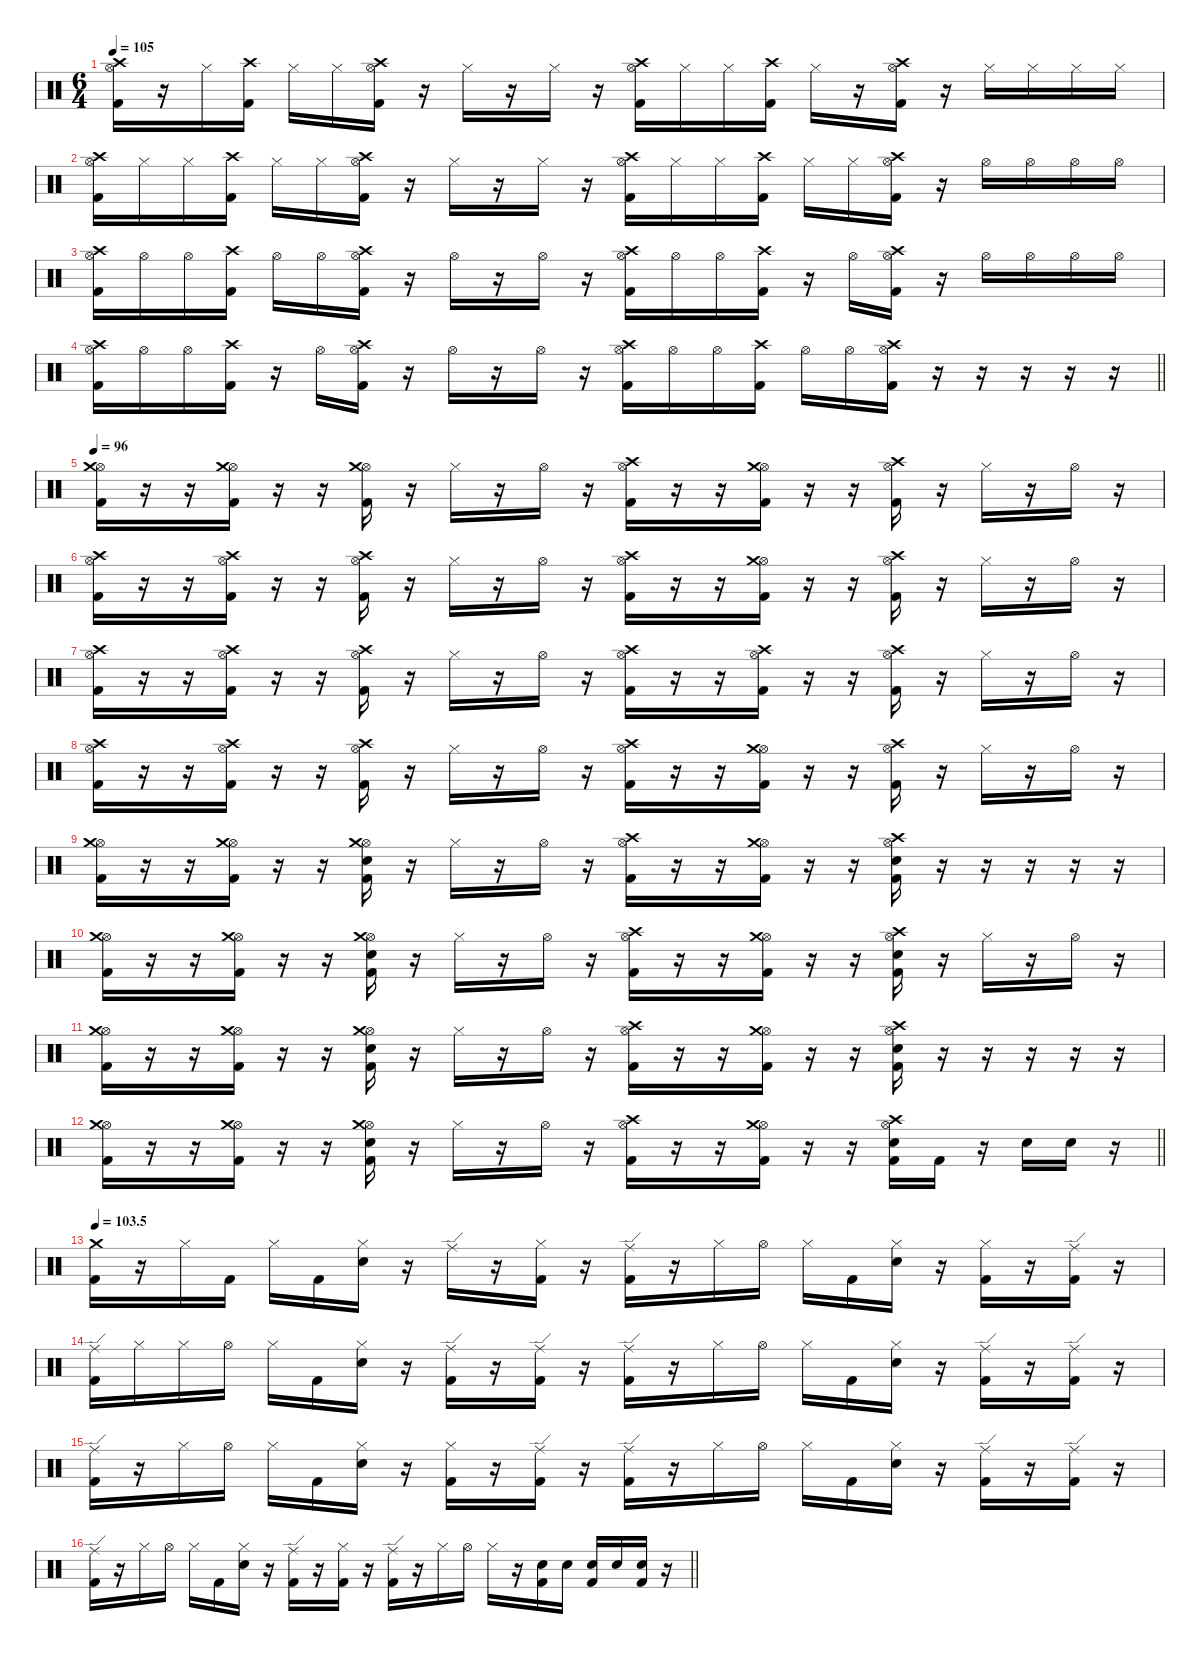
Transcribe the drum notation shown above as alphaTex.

\defaultSystemsLayout 4
\hideDynamics
\bracketExtendMode nobrackets
\singleTrackTrackNamePolicy hidden
\multiTrackTrackNamePolicy hidden
\firstSystemTrackNameMode fullname
\firstSystemTrackNameOrientation horizontal
\otherSystemsTrackNameOrientation horizontal
\track ("Gene Hoglan" "drm.") {instrument percussion}
\staff {score}
\articulation defaults
\ts (6 4)
\tempo 105
\clef neutral
\ks c
("Hi-Hat (open)" "Crash high (hit)" "Kick (hit) 2").16{dy f beam Down} r.16{beam Down} "Hi-Hat (closed)".16{beam Down} ("Crash high (hit)" "Kick (hit) 2").16{beam Down} "Hi-Hat (closed)".16{beam Down} "Hi-Hat (closed)".16{beam Down} ("Hi-Hat (open)" "Crash high (hit)" "Kick (hit) 2").16{beam Down} r.16{beam Down} "Hi-Hat (closed)".16{beam Down} r.16{beam Down} "Hi-Hat (closed)".16{beam Down} r.16{beam Down} ("Hi-Hat (open)" "Crash high (hit)" "Kick (hit) 2").16{beam Down} "Hi-Hat (closed)".16{beam Down} "Hi-Hat (closed)".16{beam Down} ("Crash high (hit)" "Kick (hit) 2").16{beam Down} "Hi-Hat (closed)".16{beam Down} r.16{beam Down} ("Hi-Hat (open)" "Crash high (hit)" "Kick (hit) 2").16{beam Down} r.16{beam Down} "Hi-Hat (closed)".16{beam Down} "Hi-Hat (closed)".16{beam Down} "Hi-Hat (closed)".16{beam Down} "Hi-Hat (closed)".16{beam Down} |
("Hi-Hat (open)" "Crash high (hit)" "Kick (hit) 2").16{beam Down} "Hi-Hat (closed)".16{beam Down} "Hi-Hat (closed)".16{beam Down} ("Crash high (hit)" "Kick (hit) 2").16{beam Down} "Hi-Hat (closed)".16{beam Down} "Hi-Hat (closed)".16{beam Down} ("Hi-Hat (open)" "Crash high (hit)" "Kick (hit) 2").16{beam Down} r.16{beam Down} "Hi-Hat (closed)".16{beam Down} r.16{beam Down} "Hi-Hat (closed)".16{beam Down} r.16{beam Down} ("Hi-Hat (open)" "Crash high (hit)" "Kick (hit) 2").16{beam Down} "Hi-Hat (closed)".16{beam Down} "Hi-Hat (closed)".16{beam Down} ("Crash high (hit)" "Kick (hit) 2").16{beam Down} "Hi-Hat (closed)".16{beam Down} "Hi-Hat (closed)".16{beam Down} ("Hi-Hat (open)" "Crash high (hit)" "Kick (hit) 2").16{beam Down} r.16{beam Down} "Hi-Hat (open)".16{beam Down} "Hi-Hat (open)".16{beam Down} "Hi-Hat (open)".16{beam Down} "Hi-Hat (open)".16{beam Down} |
("Hi-Hat (open)" "Crash high (hit)" "Kick (hit) 2").16{beam Down} "Hi-Hat (open)".16{beam Down} "Hi-Hat (open)".16{beam Down} ("Crash high (hit)" "Kick (hit) 2").16{beam Down} "Hi-Hat (open)".16{beam Down} "Hi-Hat (open)".16{beam Down} ("Hi-Hat (open)" "Crash high (hit)" "Kick (hit) 2").16{beam Down} r.16{beam Down} "Hi-Hat (open)".16{beam Down} r.16{beam Down} "Hi-Hat (open)".16{beam Down} r.16{beam Down} ("Hi-Hat (open)" "Crash high (hit)" "Kick (hit) 2").16{beam Down} "Hi-Hat (open)".16{beam Down} "Hi-Hat (open)".16{beam Down} ("Crash high (hit)" "Kick (hit) 2").16{beam Down} r.16{beam Down} "Hi-Hat (open)".16{beam Down} ("Hi-Hat (open)" "Crash high (hit)" "Kick (hit) 2").16{beam Down} r.16{beam Down} "Hi-Hat (open)".16{beam Down} "Hi-Hat (open)".16{beam Down} "Hi-Hat (open)".16{beam Down} "Hi-Hat (open)".16{beam Down} |
\barLineRight lightlight
("Hi-Hat (open)" "Crash high (hit)" "Kick (hit) 2").16{beam Down} "Hi-Hat (open)".16{beam Down} "Hi-Hat (open)".16{beam Down} ("Crash high (hit)" "Kick (hit) 2").16{beam Down} r.16{beam Down} "Hi-Hat (open)".16{beam Down} ("Hi-Hat (open)" "Crash high (hit)" "Kick (hit) 2").16{beam Down} r.16{beam Down} "Hi-Hat (open)".16{beam Down} r.16{beam Down} "Hi-Hat (open)".16{beam Down} r.16{beam Down} ("Hi-Hat (open)" "Crash high (hit)" "Kick (hit) 2").16{beam Down} "Hi-Hat (open)".16{beam Down} "Hi-Hat (open)".16{beam Down} ("Crash high (hit)" "Kick (hit) 2").16{beam Down} "Hi-Hat (open)".16{beam Down} "Hi-Hat (open)".16{beam Down} ("Hi-Hat (open)" "Crash high (hit)" "Kick (hit) 2").16{beam Down} r.16{beam Down} r.16{beam Down} r.16{beam Down} r.16{beam Down} r.16{beam Down} |
\tempo 96
("Hi-Hat (open)" "Crash medium (hit)" "Kick (hit) 2").16{beam Down} r.16{beam Down} r.16{beam Down} ("Hi-Hat (open)" "Crash medium (hit)" "Kick (hit) 2").16{beam Down} r.16{beam Down} r.16{beam Down} ("Hi-Hat (open)" "Crash medium (hit)" "Kick (hit) 2").16{beam Down} r.16{beam Down} "Hi-Hat (closed)".16{beam Down} r.16{beam Down} "Hi-Hat (open)".16{beam Down} r.16{beam Down} ("Hi-Hat (open)" "Crash high (hit)" "Kick (hit) 2").16{beam Down} r.16{beam Down} r.16{beam Down} ("Hi-Hat (open)" "Crash medium (hit)" "Kick (hit) 2").16{beam Down} r.16{beam Down} r.16{beam Down} ("Hi-Hat (open)" "Crash high (hit)" "Kick (hit) 2").16{beam Down} r.16{beam Down} "Hi-Hat (closed)".16{beam Down} r.16{beam Down} "Hi-Hat (open)".16{beam Down} r.16{beam Down} |
("Hi-Hat (open)" "Crash high (hit)" "Kick (hit) 2").16{beam Down} r.16{beam Down} r.16{beam Down} ("Hi-Hat (open)" "Crash high (hit)" "Kick (hit) 2").16{beam Down} r.16{beam Down} r.16{beam Down} ("Hi-Hat (open)" "Crash high (hit)" "Kick (hit) 2").16{beam Down} r.16{beam Down} "Hi-Hat (closed)".16{beam Down} r.16{beam Down} "Hi-Hat (open)".16{beam Down} r.16{beam Down} ("Hi-Hat (open)" "Crash high (hit)" "Kick (hit) 2").16{beam Down} r.16{beam Down} r.16{beam Down} ("Hi-Hat (open)" "Crash medium (hit)" "Kick (hit) 2").16{beam Down} r.16{beam Down} r.16{beam Down} ("Hi-Hat (open)" "Crash high (hit)" "Kick (hit) 2").16{beam Down} r.16{beam Down} "Hi-Hat (closed)".16{beam Down} r.16{beam Down} "Hi-Hat (open)".16{beam Down} r.16{beam Down} |
("Hi-Hat (open)" "Crash high (hit)" "Kick (hit) 2").16{beam Down} r.16{beam Down} r.16{beam Down} ("Hi-Hat (open)" "Crash high (hit)" "Kick (hit) 2").16{beam Down} r.16{beam Down} r.16{beam Down} ("Hi-Hat (open)" "Crash high (hit)" "Kick (hit) 2").16{beam Down} r.16{beam Down} "Hi-Hat (closed)".16{beam Down} r.16{beam Down} "Hi-Hat (open)".16{beam Down} r.16{beam Down} ("Hi-Hat (open)" "Crash high (hit)" "Kick (hit) 2").16{beam Down} r.16{beam Down} r.16{beam Down} ("Hi-Hat (open)" "Crash high (hit)" "Kick (hit) 2").16{beam Down} r.16{beam Down} r.16{beam Down} ("Hi-Hat (open)" "Crash high (hit)" "Kick (hit) 2").16{beam Down} r.16{beam Down} "Hi-Hat (closed)".16{beam Down} r.16{beam Down} "Hi-Hat (open)".16{beam Down} r.16{beam Down} |
("Hi-Hat (open)" "Crash high (hit)" "Kick (hit) 2").16{beam Down} r.16{beam Down} r.16{beam Down} ("Hi-Hat (open)" "Crash high (hit)" "Kick (hit) 2").16{beam Down} r.16{beam Down} r.16{beam Down} ("Hi-Hat (open)" "Crash high (hit)" "Kick (hit) 2").16{beam Down} r.16{beam Down} "Hi-Hat (closed)".16{beam Down} r.16{beam Down} "Hi-Hat (open)".16{beam Down} r.16{beam Down} ("Hi-Hat (open)" "Crash high (hit)" "Kick (hit) 2").16{beam Down} r.16{beam Down} r.16{beam Down} ("Hi-Hat (open)" "Crash medium (hit)" "Kick (hit) 2").16{beam Down} r.16{beam Down} r.16{beam Down} ("Hi-Hat (open)" "Crash high (hit)" "Kick (hit) 2").16{beam Down} r.16{beam Down} "Hi-Hat (closed)".16{beam Down} r.16{beam Down} "Hi-Hat (open)".16{beam Down} r.16{beam Down} |
("Hi-Hat (open)" "Crash medium (hit)" "Kick (hit) 2").16{beam Down} r.16{beam Down} r.16{beam Down} ("Hi-Hat (open)" "Crash medium (hit)" "Kick (hit) 2").16{beam Down} r.16{beam Down} r.16{beam Down} ("Hi-Hat (open)" "Crash medium (hit)" "Snare (hit) 2" "Kick (hit) 2").16{beam Down} r.16{beam Down} "Hi-Hat (closed)".16{beam Down} r.16{beam Down} "Hi-Hat (open)".16{beam Down} r.16{beam Down} ("Hi-Hat (open)" "Crash high (hit)" "Kick (hit) 2").16{beam Down} r.16{beam Down} r.16{beam Down} ("Hi-Hat (open)" "Crash medium (hit)" "Kick (hit) 2").16{beam Down} r.16{beam Down} r.16{beam Down} ("Hi-Hat (open)" "Crash high (hit)" "Snare (hit) 2" "Kick (hit) 2").16{beam Down} r.16{beam Down} r.16{beam Down} r.16{beam Down} r.16{beam Down} r.16{beam Down} |
("Hi-Hat (open)" "Crash medium (hit)" "Kick (hit) 2").16{beam Down} r.16{beam Down} r.16{beam Down} ("Hi-Hat (open)" "Crash medium (hit)" "Kick (hit) 2").16{beam Down} r.16{beam Down} r.16{beam Down} ("Hi-Hat (open)" "Crash medium (hit)" "Snare (hit) 2" "Kick (hit) 2").16{beam Down} r.16{beam Down} "Hi-Hat (closed)".16{beam Down} r.16{beam Down} "Hi-Hat (open)".16{beam Down} r.16{beam Down} ("Hi-Hat (open)" "Crash high (hit)" "Kick (hit) 2").16{beam Down} r.16{beam Down} r.16{beam Down} ("Hi-Hat (open)" "Crash medium (hit)" "Kick (hit) 2").16{beam Down} r.16{beam Down} r.16{beam Down} ("Hi-Hat (open)" "Crash high (hit)" "Snare (hit) 2" "Kick (hit) 2").16{beam Down} r.16{beam Down} "Hi-Hat (closed)".16{beam Down} r.16{beam Down} "Hi-Hat (open)".16{beam Down} r.16{beam Down} |
("Hi-Hat (open)" "Crash medium (hit)" "Kick (hit) 2").16{beam Down} r.16{beam Down} r.16{beam Down} ("Hi-Hat (open)" "Crash medium (hit)" "Kick (hit) 2").16{beam Down} r.16{beam Down} r.16{beam Down} ("Hi-Hat (open)" "Crash medium (hit)" "Snare (hit) 2" "Kick (hit) 2").16{beam Down} r.16{beam Down} "Hi-Hat (closed)".16{beam Down} r.16{beam Down} "Hi-Hat (open)".16{beam Down} r.16{beam Down} ("Hi-Hat (open)" "Crash high (hit)" "Kick (hit) 2").16{beam Down} r.16{beam Down} r.16{beam Down} ("Hi-Hat (open)" "Crash medium (hit)" "Kick (hit) 2").16{beam Down} r.16{beam Down} r.16{beam Down} ("Hi-Hat (open)" "Crash high (hit)" "Snare (hit) 2" "Kick (hit) 2").16{beam Down} r.16{beam Down} r.16{beam Down} r.16{beam Down} r.16{beam Down} r.16{beam Down} |
\barLineRight lightlight
("Hi-Hat (open)" "Crash medium (hit)" "Kick (hit) 2").16{beam Down} r.16{beam Down} r.16{beam Down} ("Hi-Hat (open)" "Crash medium (hit)" "Kick (hit) 2").16{beam Down} r.16{beam Down} r.16{beam Down} ("Hi-Hat (open)" "Crash medium (hit)" "Snare (hit) 2" "Kick (hit) 2").16{beam Down} r.16{beam Down} "Hi-Hat (closed)".16{beam Down} r.16{beam Down} "Hi-Hat (open)".16{beam Down} r.16{beam Down} ("Hi-Hat (open)" "Crash high (hit)" "Kick (hit) 2").16{beam Down} r.16{beam Down} r.16{beam Down} ("Hi-Hat (open)" "Crash medium (hit)" "Kick (hit) 2").16{beam Down} r.16{beam Down} r.16{beam Down} ("Hi-Hat (open)" "Crash high (hit)" "Snare (hit) 2" "Kick (hit) 2").16{beam Down} "Kick (hit) 2".16{beam Down} r.16{beam Down} "Snare (hit) 2".16{beam Down} "Snare (hit) 2".16{beam Down} r.16{beam Down} |
\tempo
103.5 ("Crash medium (hit)" "Kick (hit) 2").16{beam Down} r.16{beam Down} "Hi-Hat (closed)".16{beam Down} "Kick (hit) 2".16{beam Down} "Hi-Hat (closed)".16{beam Down} "Kick (hit) 2".16{beam Down} ("Hi-Hat (closed)" "Snare (hit) 2").16{beam Down} r.16{beam Down} "Ride (edge)".16{beam Down} r.16{beam Down} ("Hi-Hat (closed)" "Kick (hit) 2").16{beam Down} r.16{beam Down} ("Ride (edge)" "Kick (hit) 2").16{beam Down} r.16{beam Down} "Hi-Hat (closed)".16{beam Down} "Hi-Hat (open)".16{beam Down} "Hi-Hat (closed)".16{beam Down} "Kick (hit) 2".16{beam Down} ("Hi-Hat (closed)" "Snare (hit) 2").16{beam Down} r.16{beam Down} ("Hi-Hat (closed)" "Kick (hit) 2").16{beam Down} r.16{beam Down} ("Ride (edge)" "Kick (hit) 2").16{beam Down} r.16{beam Down} |
("Ride (edge)" "Kick (hit) 2").16{beam Down} "Hi-Hat (closed)".16{beam Down} "Hi-Hat (closed)".16{beam Down} "Hi-Hat (open)".16{beam Down} "Hi-Hat (closed)".16{beam Down} "Kick (hit) 2".16{beam Down} ("Hi-Hat (closed)" "Snare (hit) 2").16{beam Down} r.16{beam Down} ("Ride (edge)" "Kick (hit) 2").16{beam Down} r.16{beam Down} ("Ride (edge)" "Kick (hit) 2").16{beam Down} r.16{beam Down} ("Ride (edge)" "Kick (hit) 2").16{beam Down} r.16{beam Down} "Hi-Hat (closed)".16{beam Down} "Hi-Hat (open)".16{beam Down} "Hi-Hat (closed)".16{beam Down} "Kick (hit) 2".16{beam Down} ("Hi-Hat (closed)" "Snare (hit) 2").16{beam Down} r.16{beam Down} ("Ride (edge)" "Kick (hit) 2").16{beam Down} r.16{beam Down} ("Ride (edge)" "Kick (hit) 2").16{beam Down} r.16{beam Down} |
("Ride (edge)" "Kick (hit) 2").16{beam Down} r.16{beam Down} "Hi-Hat (closed)".16{beam Down} "Hi-Hat (open)".16{beam Down} "Hi-Hat (closed)".16{beam Down} "Kick (hit) 2".16{beam Down} ("Hi-Hat (closed)" "Snare (hit) 2").16{beam Down} r.16{beam Down} ("Hi-Hat (closed)" "Kick (hit) 2").16{beam Down} r.16{beam Down} ("Ride (edge)" "Kick (hit) 2").16{beam Down} r.16{beam Down} ("Ride (edge)" "Kick (hit) 2").16{beam Down} r.16{beam Down} "Hi-Hat (closed)".16{beam Down} "Hi-Hat (open)".16{beam Down} "Hi-Hat (closed)".16{beam Down} "Kick (hit) 2".16{beam Down} ("Hi-Hat (closed)" "Snare (hit) 2").16{beam Down} r.16{beam Down} ("Ride (edge)" "Kick (hit) 2").16{beam Down} r.16{beam Down} ("Ride (edge)" "Kick (hit) 2").16{beam Down} r.16{beam Down} |
\barLineRight lightlight
("Ride (edge)" "Kick (hit) 2").16{beam Down} r.16{beam Down} "Hi-Hat (closed)".16{beam Down} "Hi-Hat (open)".16{beam Down} "Hi-Hat (closed)".16{beam Down} "Kick (hit) 2".16{beam Down} ("Hi-Hat (closed)" "Snare (hit) 2").16{beam Down} r.16{beam Down} ("Ride (edge)" "Kick (hit) 2").16{beam Down} r.16{beam Down} ("Hi-Hat (closed)" "Kick (hit) 2").16{beam Down} r.16{beam Down} ("Ride (edge)" "Kick (hit) 2").16{beam Down} r.16{beam Down} "Hi-Hat (closed)".16{beam Down} "Hi-Hat (open)".16{beam Down} "Hi-Hat (closed)".16{beam Down} r.16{beam Down} ("Snare (hit) 2" "Kick (hit) 2").16{beam Up} "Snare (hit) 2".16{beam Up} ("Snare (hit) 2" "Kick (hit) 2").16{beam Up} "Snare (hit) 2".16{beam Up} ("Snare (hit) 2" "Kick (hit) 2").16{beam Up} r.16{beam Up}
